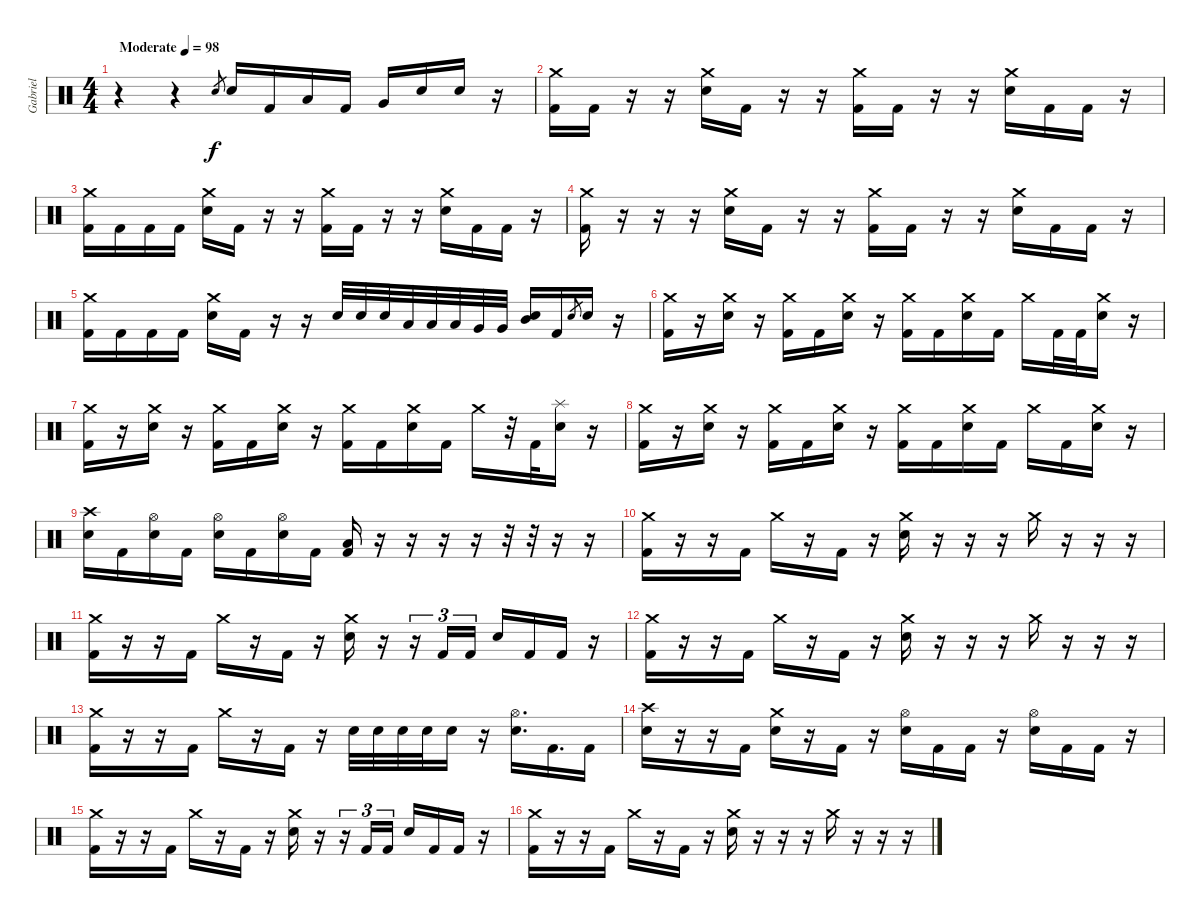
\track ("Gabriel" "Gabriel") {instrument percussion}
\staff {score}
\articulation defaults
\ts (4 4)
\tempo (98 "Moderate")
\clef neutral
\ks c
r.4{dy f} r.4 "Electric Snare (hit)".8{gr} "Electric Snare (hit)".16 "Kick (hit) 2".16 "Low Tom (hit)".16 "Kick (hit) 2".16 "Very Low Tom (hit)".16 "Electric Snare (hit)".16 "Electric Snare (hit)".16 r.16 |
("Crash medium (hit)" "Kick (hit) 2").16 "Kick (hit) 2".16 r.16 r.16 ("Crash medium (hit)" "Electric Snare (hit)").16 "Kick (hit) 2".16 r.16 r.16 ("Crash medium (hit)" "Kick (hit) 2").16 "Kick (hit) 2".16 r.16 r.16 ("Crash medium (hit)" "Electric Snare (hit)").16 "Kick (hit) 2".16 "Kick (hit) 2".16 r.16 |
("Crash medium (hit)" "Kick (hit) 2").16 "Kick (hit) 2".16 "Kick (hit) 2".16 "Kick (hit) 2".16 ("Crash medium (hit)" "Electric Snare (hit)").16 "Kick (hit) 2".16 r.16 r.16 ("Crash medium (hit)" "Kick (hit) 2").16 "Kick (hit) 2".16 r.16 r.16 ("Crash medium (hit)" "Electric Snare (hit)").16 "Kick (hit) 2".16 "Kick (hit) 2".16 r.16 |
("Crash medium (hit)" "Kick (hit) 2").16 r.16 r.16 r.16 ("Crash medium (hit)" "Electric Snare (hit)").16 "Kick (hit) 2".16 r.16 r.16 ("Crash medium (hit)" "Kick (hit) 2").16 "Kick (hit) 2".16 r.16 r.16 ("Crash medium (hit)" "Electric Snare (hit)").16 "Kick (hit) 2".16 "Kick (hit) 2".16 r.16 |
("Crash medium (hit)" "Kick (hit) 2").16 "Kick (hit) 2".16 "Kick (hit) 2".16 "Kick (hit) 2".16 ("Crash medium (hit)" "Electric Snare (hit)").16 "Kick (hit) 2".16 r.16 r.16 "Electric Snare (hit)".32 "Electric Snare (hit)".32 "Electric Snare (hit)".32 "Low Tom (hit)".32 "Low Tom (hit)".32 "Low Tom (hit)".32 "Very Low Tom (hit)".32 "Very Low Tom (hit)".32 ("Mid Tom (hit)" "Electric Snare (hit)").16 "Kick (hit) 2".16 "Electric Snare (hit)".8{gr} "Electric Snare (hit)".16 r.16 |
("Crash medium (hit)" "Kick (hit) 2").16 r.16 ("Crash medium (hit)" "Electric Snare (hit)").16 r.16 ("Crash medium (hit)" "Kick (hit) 2").16 "Kick (hit) 2".16 ("Crash medium (hit)" "Electric Snare (hit)").16 r.16 ("Crash medium (hit)" "Kick (hit) 2").16 "Kick (hit) 2".16 ("Crash medium (hit)" "Electric Snare (hit)").16 "Kick (hit) 2".16 "Crash medium (hit)".16 "Kick (hit) 2".32 "Kick (hit) 2".32 ("Crash medium (hit)" "Electric Snare (hit)").16 r.16 |
("Crash medium (hit)" "Kick (hit) 2").16 r.16 ("Crash medium (hit)" "Electric Snare (hit)").16 r.16 ("Crash medium (hit)" "Kick (hit) 2").16 "Kick (hit) 2".16 ("Crash medium (hit)" "Electric Snare (hit)").16 r.16 ("Crash medium (hit)" "Kick (hit) 2").16 "Kick (hit) 2".16 ("Crash medium (hit)" "Electric Snare (hit)").16 "Kick (hit) 2".16 "Crash medium (hit)".16 r.32 "Kick (hit) 2".32 ("Splash (hit)" "Electric Snare (hit)").16 r.16 |
("Crash medium (hit)" "Kick (hit) 2").16 r.16 ("Crash medium (hit)" "Electric Snare (hit)").16 r.16 ("Crash medium (hit)" "Kick (hit) 2").16 "Kick (hit) 2".16 ("Crash medium (hit)" "Electric Snare (hit)").16 r.16 ("Crash medium (hit)" "Kick (hit) 2").16 "Kick (hit) 2".16 ("Crash medium (hit)" "Electric Snare (hit)").16 "Kick (hit) 2".16 "Crash medium (hit)".16 "Kick (hit) 2".16 ("Crash medium (hit)" "Electric Snare (hit)").16 r.16 |
("Crash high (hit)" "Electric Snare (hit)").16 "Kick (hit) 2".16 ("Hi-Hat (open)" "Electric Snare (hit)").16 "Kick (hit) 2".16 ("Hi-Hat (open)" "Electric Snare (hit)").16 "Kick (hit) 2".16 ("Hi-Hat (open)" "Electric Snare (hit)").16 "Kick (hit) 2".16 ("Low Tom (hit)" "Kick (hit) 2").16 r.16 r.16 r.16 r.16 r.32 r.32 r.16 r.16 |
("Crash medium (hit)" "Kick (hit) 2").16 r.16 r.16 "Kick (hit) 2".16 "Crash medium (hit)".16 r.16 "Kick (hit) 2".16 r.16 ("Crash medium (hit)" "Electric Snare (hit)").16 r.16 r.16 r.16 "Crash medium (hit)".16 r.16 r.16 r.16 |
("Crash medium (hit)" "Kick (hit) 2").16 r.16 r.16 "Kick (hit) 2".16 "Crash medium (hit)".16 r.16 "Kick (hit) 2".16 r.16 ("Crash medium (hit)" "Electric Snare (hit)").16 r.16 r.16{tu (3 2)} "Kick (hit) 2".16{tu (3 2)} "Kick (hit) 2".16{tu (3 2)} "Electric Snare (hit)".16 "Kick (hit) 2".16 "Kick (hit) 2".16 r.16 |
("Crash medium (hit)" "Kick (hit) 2").16 r.16 r.16 "Kick (hit) 2".16 "Crash medium (hit)".16 r.16 "Kick (hit) 2".16 r.16 ("Crash medium (hit)" "Electric Snare (hit)").16 r.16 r.16 r.16 "Crash medium (hit)".16 r.16 r.16 r.16 |
("Crash medium (hit)" "Kick (hit) 2").16 r.16 r.16 "Kick (hit) 2".16 "Crash medium (hit)".16 r.16 "Kick (hit) 2".16 r.16 "Electric Snare (hit)".32 "Electric Snare (hit)".32 "Electric Snare (hit)".32 "Electric Snare (hit)".32 "Electric Snare (hit)".16 r.16 ("Hi-Hat (open)" "Electric Snare (hit)").16{d} "Kick (hit) 2".16{d} "Kick (hit) 2".16 |
("Crash high (hit)" "Electric Snare (hit)").16 r.16 r.16 "Kick (hit) 2".16 ("Crash medium (hit)" "Electric Snare (hit)").16 r.16 "Kick (hit) 2".16 r.16 ("Hi-Hat (open)" "Electric Snare (hit)").16 "Kick (hit) 2".16 "Kick (hit) 2".16 r.16 ("Hi-Hat (open)" "Electric Snare (hit)").16 "Kick (hit) 2".16 "Kick (hit) 2".16 r.16 |
("Crash medium (hit)" "Kick (hit) 2").16 r.16 r.16 "Kick (hit) 2".16 "Crash medium (hit)".16 r.16 "Kick (hit) 2".16 r.16 ("Crash medium (hit)" "Electric Snare (hit)").16 r.16 r.16{tu (3 2)} "Kick (hit) 2".16{tu (3 2)} "Kick (hit) 2".16{tu (3 2)} "Electric Snare (hit)".16 "Kick (hit) 2".16 "Kick (hit) 2".16 r.16 |
("Crash medium (hit)" "Kick (hit) 2").16 r.16 r.16 "Kick (hit) 2".16 "Crash medium (hit)".16 r.16 "Kick (hit) 2".16 r.16 ("Crash medium (hit)" "Electric Snare (hit)").16 r.16 r.16 r.16 "Crash medium (hit)".16 r.16 r.16 r.16
